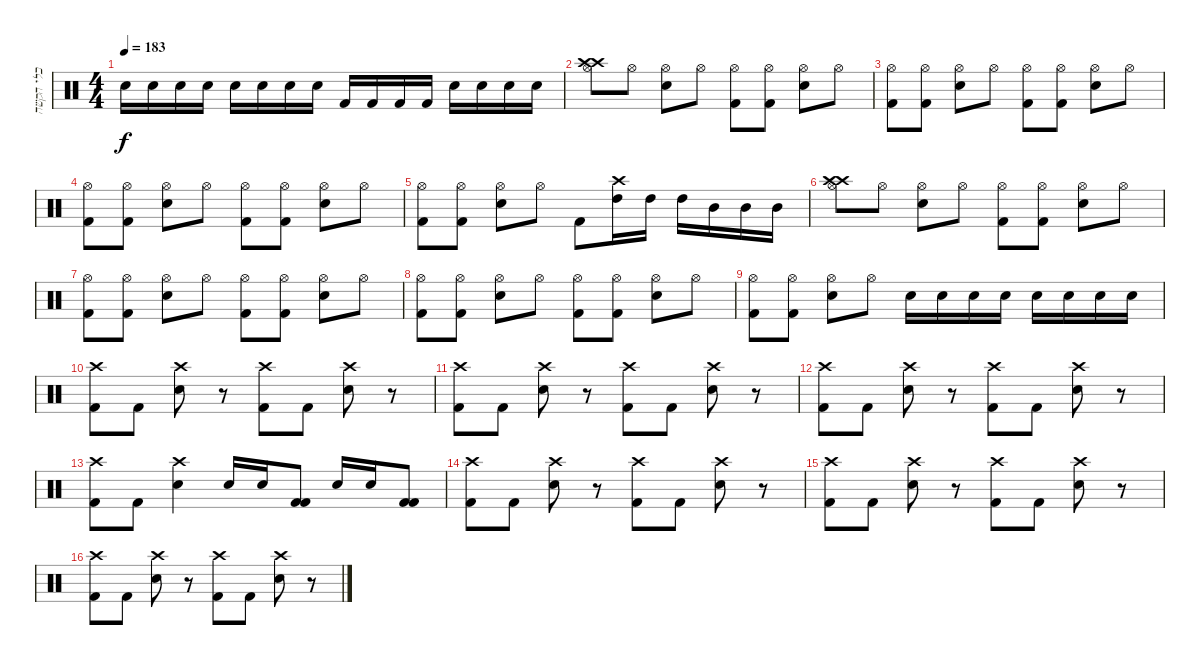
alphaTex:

\track ("כלי הקשה" "כלי הקשה") {instrument percussion}
\staff {score}
\articulation defaults
\ts (4 4)
\tempo 183
\clef neutral
\ks c "Snare (hit) 2".16{dy f} "Snare (hit) 2".16 "Snare (hit) 2".16 "Snare (hit) 2".16 "Snare (hit) 2".16 "Snare (hit) 2".16 "Snare (hit) 2".16 "Snare (hit) 2".16 "Kick (hit) 2".16 "Kick (hit) 2".16 "Kick (hit) 2".16 "Kick (hit) 2".16 "Snare (hit) 2".16 "Snare (hit) 2".16 "Snare (hit) 2".16 "Snare (hit) 2".16
|
("Crash high (hit)" "Crash high (hit)" "Hi-Hat (open)").8 "Hi-Hat (open)".8 ("Hi-Hat (open)" "Snare (hit) 2").8 "Hi-Hat (open)".8 ("Hi-Hat (open)" "Kick (hit) 2").8 ("Hi-Hat (open)" "Kick (hit) 2").8 ("Hi-Hat (open)" "Snare (hit) 2").8 "Hi-Hat (open)".8 |
("Hi-Hat (open)" "Kick (hit) 2").8 ("Hi-Hat (open)" "Kick (hit) 2").8 ("Hi-Hat (open)" "Snare (hit) 2").8 "Hi-Hat (open)".8 ("Hi-Hat (open)" "Kick (hit) 2").8 ("Hi-Hat (open)" "Kick (hit) 2").8 ("Hi-Hat (open)" "Snare (hit) 2").8 "Hi-Hat (open)".8 |
("Hi-Hat (open)" "Kick (hit) 2").8 ("Hi-Hat (open)" "Kick (hit) 2").8 ("Hi-Hat (open)" "Snare (hit) 2").8 "Hi-Hat (open)".8 ("Hi-Hat (open)" "Kick (hit) 2").8 ("Hi-Hat (open)" "Kick (hit) 2").8 ("Hi-Hat (open)" "Snare (hit) 2").8 "Hi-Hat (open)".8 |
("Hi-Hat (open)" "Kick (hit) 2").8 ("Hi-Hat (open)" "Kick (hit) 2").8 ("Hi-Hat (open)" "Snare (hit) 2").8 "Hi-Hat (open)".8 "Kick (hit) 2".8 ("Crash high (hit)" "High Tom (hit)").16 "High Tom (hit)".16 "High Tom (hit)".16 "Mid Tom (hit)".16 "Mid Tom (hit)".16 "Mid Tom (hit)".16 |
("Crash high (hit)" "Crash high (hit)" "Hi-Hat (open)").8 "Hi-Hat (open)".8 ("Hi-Hat (open)" "Snare (hit) 2").8 "Hi-Hat (open)".8 ("Hi-Hat (open)" "Kick (hit) 2").8 ("Hi-Hat (open)" "Kick (hit) 2").8 ("Hi-Hat (open)" "Snare (hit) 2").8 "Hi-Hat (open)".8 |
("Hi-Hat (open)" "Kick (hit) 2").8 ("Hi-Hat (open)" "Kick (hit) 2").8 ("Hi-Hat (open)" "Snare (hit) 2").8 "Hi-Hat (open)".8 ("Hi-Hat (open)" "Kick (hit) 2").8 ("Hi-Hat (open)" "Kick (hit) 2").8 ("Hi-Hat (open)" "Snare (hit) 2").8 "Hi-Hat (open)".8 |
("Hi-Hat (open)" "Kick (hit) 2").8 ("Hi-Hat (open)" "Kick (hit) 2").8 ("Hi-Hat (open)" "Snare (hit) 2").8 "Hi-Hat (open)".8 ("Hi-Hat (open)" "Kick (hit) 2").8 ("Hi-Hat (open)" "Kick (hit) 2").8 ("Hi-Hat (open)" "Snare (hit) 2").8 "Hi-Hat (open)".8 |
("Hi-Hat (open)" "Kick (hit) 2").8 ("Hi-Hat (open)" "Kick (hit) 2").8 ("Hi-Hat (open)" "Snare (hit) 2").8 "Hi-Hat (open)".8 "Snare (hit) 2".16 "Snare (hit) 2".16 "Snare (hit) 2".16 "Snare (hit) 2".16 "Snare (hit) 2".16 "Snare (hit) 2".16 "Snare (hit) 2".16 "Snare (hit) 2".16 |
("Crash high (hit)" "Kick (hit) 2").8 "Kick (hit) 2".8 ("Crash high (hit)" "Snare (hit) 2").8 r.8 ("Crash high (hit)" "Kick (hit) 2").8 "Kick (hit) 2".8 ("Crash high (hit)" "Snare (hit) 2").8 r.8 |
("Crash high (hit)" "Kick (hit) 2").8 "Kick (hit) 2".8 ("Crash high (hit)" "Snare (hit) 2").8 r.8 ("Crash high (hit)" "Kick (hit) 2").8 "Kick (hit) 2".8 ("Crash high (hit)" "Snare (hit) 2").8 r.8 |
("Crash high (hit)" "Kick (hit) 2").8 "Kick (hit) 2".8 ("Crash high (hit)" "Snare (hit) 2").8 r.8 ("Crash high (hit)" "Kick (hit) 2").8 "Kick (hit) 2".8 ("Crash high (hit)" "Snare (hit) 2").8 r.8 |
("Crash high (hit)" "Kick (hit) 2").8 "Kick (hit) 2".8 ("Crash high (hit)" "Snare (hit) 2").4 "Snare (hit) 2".16 "Snare (hit) 2".16 ("Kick (hit) 2" "Kick (hit) 2").8 "Snare (hit) 2".16 "Snare (hit) 2".16 ("Kick (hit) 2" "Kick (hit) 2").8 |
("Crash high (hit)" "Kick (hit) 2").8 "Kick (hit) 2".8 ("Crash high (hit)" "Snare (hit) 2").8 r.8 ("Crash high (hit)" "Kick (hit) 2").8 "Kick (hit) 2".8 ("Crash high (hit)" "Snare (hit) 2").8 r.8 |
("Crash high (hit)" "Kick (hit) 2").8 "Kick (hit) 2".8 ("Crash high (hit)" "Snare (hit) 2").8 r.8 ("Crash high (hit)" "Kick (hit) 2").8 "Kick (hit) 2".8 ("Crash high (hit)" "Snare (hit) 2").8 r.8 |
("Crash high (hit)" "Kick (hit) 2").8 "Kick (hit) 2".8 ("Crash high (hit)" "Snare (hit) 2").8 r.8 ("Crash high (hit)" "Kick (hit) 2").8 "Kick (hit) 2".8 ("Crash high (hit)" "Snare (hit) 2").8 r.8
